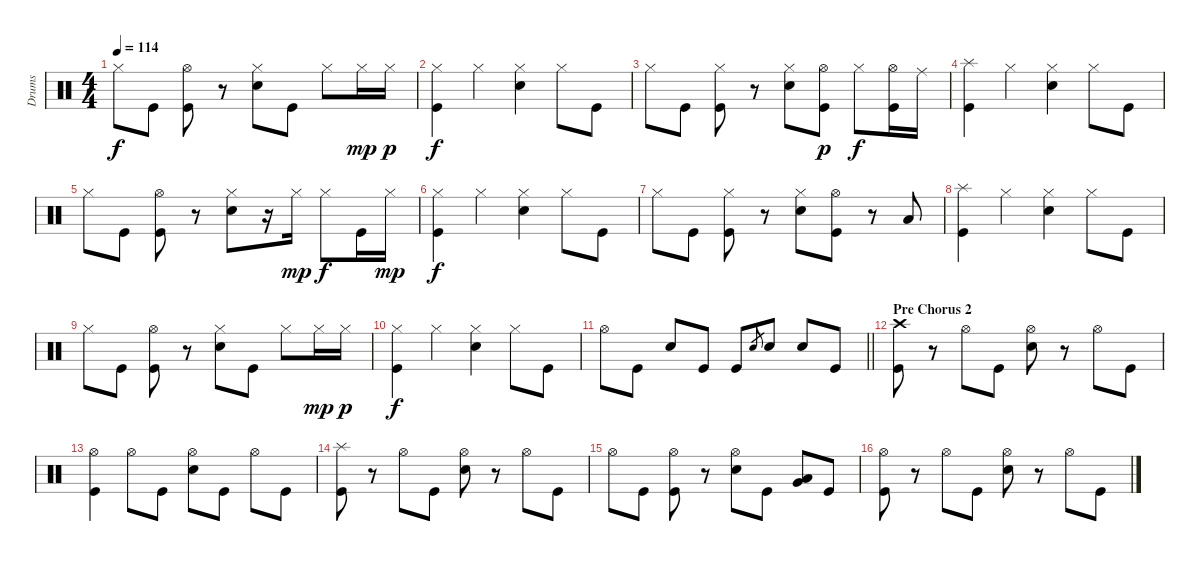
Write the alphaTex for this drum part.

\track ("Drums" "Drums") {instrument percussion}
\staff {score}
\articulation defaults
\ts (4 4)
\tempo 114
\clef neutral
\ks c "Hi-Hat (closed)".8{dy f} "Kick (hit)".8
("Hi-Hat (open)" "Kick (hit)").8 r.8 ("Hi-Hat (closed)" "Electric Snare (hit)").8 "Kick (hit)".8 "Hi-Hat (closed)".8 "Hi-Hat (closed)".16{dy mp} "Hi-Hat (closed)".16{dy p} |
("Hi-Hat (closed)" "Kick (hit)").4{dy f} "Hi-Hat (closed)".4 ("Hi-Hat (closed)" "Electric Snare (hit)").4 "Hi-Hat (closed)".8 "Kick (hit)".8 |
"Hi-Hat (closed)".8 "Kick (hit)".8 ("Hi-Hat (closed)" "Kick (hit)").8 r.8 ("Hi-Hat (closed)" "Electric Snare (hit)").8 ("Hi-Hat (open)" "Kick (hit)").8{dy p} "Hi-Hat (closed)".8{dy f} ("Hi-Hat (open)" "Kick (hit)").16 "Ride (middle)".16 |
("Splash (hit)" "Kick (hit)").4 "Hi-Hat (closed)".4 ("Hi-Hat (closed)" "Electric Snare (hit)").4 "Hi-Hat (closed)".8 "Kick (hit)".8 |
"Hi-Hat (closed)".8 "Kick (hit)".8 ("Hi-Hat (open)" "Kick (hit)").8 r.8 ("Hi-Hat (closed)" "Electric Snare (hit)").8 r.16 "Hi-Hat (closed)".16{dy mp} "Hi-Hat (closed)".8{dy f} "Kick (hit)".16 "Hi-Hat (closed)".16{dy mp} |
("Hi-Hat (closed)" "Kick (hit)").4{dy f} "Hi-Hat (closed)".4 ("Hi-Hat (closed)" "Electric Snare (hit)").4 "Hi-Hat (closed)".8 "Kick (hit)".8 |
"Hi-Hat (closed)".8 "Kick (hit)".8 ("Hi-Hat (closed)" "Kick (hit)").8 r.8 ("Hi-Hat (closed)" "Electric Snare (hit)").8 ("Hi-Hat (open)" "Kick (hit)").8 r.8 "Low Floor Tom (hit)".8 |
("Splash (hit)" "Kick (hit)").4 "Hi-Hat (closed)".4 ("Hi-Hat (closed)" "Electric Snare (hit)").4 "Hi-Hat (closed)".8 "Kick (hit)".8 |
"Hi-Hat (closed)".8 "Kick (hit)".8 ("Hi-Hat (open)" "Kick (hit)").8 r.8 ("Hi-Hat (closed)" "Electric Snare (hit)").8 "Kick (hit)".8 "Hi-Hat (closed)".8 "Hi-Hat (closed)".16{dy mp} "Hi-Hat (closed)".16{dy p} |
("Hi-Hat (closed)" "Kick (hit)").4{dy f} "Hi-Hat (closed)".4 ("Hi-Hat (closed)" "Electric Snare (hit)").4 "Hi-Hat (closed)".8 "Kick (hit)".8 |
\barLineRight lightlight "Hi-Hat (open)".8 "Kick (hit)".8 "Electric Snare (hit)".8 "Kick (hit)".8 "Kick (hit)".8 "Electric Snare (hit)".8{gr} "Electric Snare (hit)".8 "Electric Snare (hit)".8 "Kick (hit)".8
|
\section ("" "Pre Chorus 2")
("Crash high (hit)" "Kick (hit)").8 r.8 "Hi-Hat (open)".8 "Kick (hit)".8 ("Hi-Hat (open)" "Electric Snare (hit)").8 r.8 "Hi-Hat (open)".8 "Kick (hit)".8 |
("Hi-Hat (open)" "Kick (hit)").4 "Hi-Hat (open)".8 "Kick (hit)".8 ("Hi-Hat (open)" "Electric Snare (hit)").8 "Kick (hit)".8 "Hi-Hat (open)".8 "Kick (hit)".8 |
("Splash (hit)" "Kick (hit)").8 r.8 "Hi-Hat (open)".8 "Kick (hit)".8 ("Hi-Hat (open)" "Electric Snare (hit)").8 r.8 "Hi-Hat (open)".8 "Kick (hit)".8 |
"Hi-Hat (open)".8 "Kick (hit)".8 ("Hi-Hat (open)" "Kick (hit)").8 r.8 ("Hi-Hat (open)" "Electric Snare (hit)").8 "Kick (hit)".8 ("Very Low Tom (hit)" "Low Floor Tom (hit)").8 "Kick (hit)".8 |
("Hi-Hat (open)" "Kick (hit)").8 r.8 "Hi-Hat (open)".8 "Kick (hit)".8 ("Hi-Hat (open)" "Electric Snare (hit)").8 r.8 "Hi-Hat (open)".8 "Kick (hit)".8
